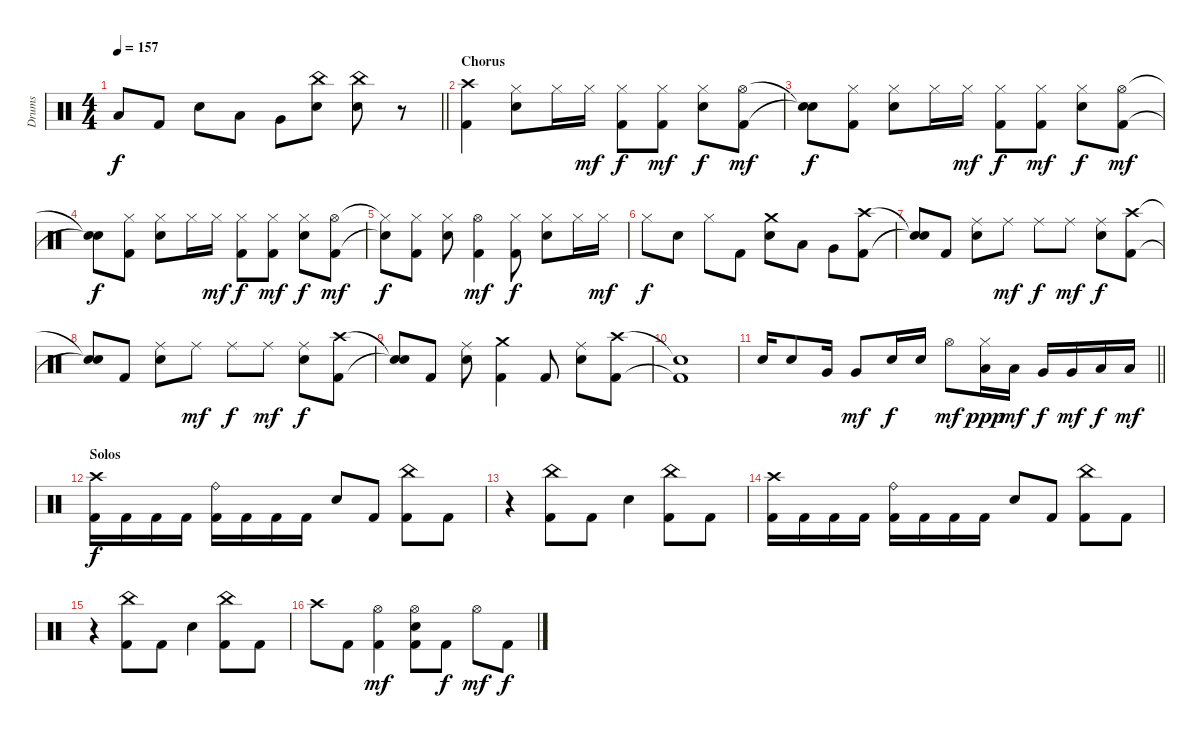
\track ("Drums" "Drums") {instrument percussion}
\staff {score}
\articulation defaults
\ts (4 4)
\tempo 157
\clef neutral
\barLineRight lightlight
\ks c "Low Tom (hit)".8{dy f} "Kick (hit) 2".8 "Electric Snare (hit)".8 "Low Tom (hit)".8 "Very Low Tom (hit)".8
("China (hit)" "Electric Snare (hit)").8 ("China (hit)" "Electric Snare (hit)").8 r.8 |
\section ("" "Chorus")
("Kick (hit) 2" "Crash high (hit)").4 ("Hi-Hat (closed)" "Electric Snare (hit)").8 "Hi-Hat (closed)".16 "Hi-Hat (closed)".16{dy mf} ("Kick (hit) 2" "Hi-Hat (closed)").8{dy f} ("Kick (hit) 2" "Hi-Hat (closed)").8{dy mf} ("Hi-Hat (closed)" "Electric Snare (hit)").8{dy f} ("Kick (hit) 2" "Hi-Hat (open)").8{dy mf} |
("Snare (hit)"{t} "Snare (hit)"{t}).8{dy f} ("Kick (hit) 2" "Hi-Hat (closed)").8 ("Hi-Hat (closed)" "Electric Snare (hit)").8 "Hi-Hat (closed)".16 "Hi-Hat (closed)".16{dy mf} ("Kick (hit) 2" "Hi-Hat (closed)").8{dy f} ("Kick (hit) 2" "Hi-Hat (closed)").8{dy mf} ("Hi-Hat (closed)" "Electric Snare (hit)").8{dy f} ("Kick (hit) 2" "Hi-Hat (open)").8{dy mf} |
("Snare (hit)"{t} "Snare (hit)"{t}).8{dy f} ("Kick (hit) 2" "Hi-Hat (closed)").8 ("Hi-Hat (closed)" "Electric Snare (hit)").8 "Hi-Hat (closed)".16 "Hi-Hat (closed)".16{dy mf} ("Kick (hit) 2" "Hi-Hat (closed)").8{dy f} ("Kick (hit) 2" "Hi-Hat (closed)").8{dy mf} ("Hi-Hat (closed)" "Electric Snare (hit)").8{dy f} ("Kick (hit) 2" "Hi-Hat (open)").8{dy mf} |
("Snare (hit)"{t} "Hi-Hat (closed)"{t}).8{dy f} ("Kick (hit) 2" "Hi-Hat (closed)").8 ("Hi-Hat (closed)" "Electric Snare (hit)").8 ("Kick (hit) 2" "Hi-Hat (open)").4{dy mf} ("Kick (hit) 2" "Hi-Hat (closed)").8{dy f} ("Hi-Hat (closed)" "Electric Snare (hit)").8 "Hi-Hat (closed)".16 "Hi-Hat (closed)".16{dy mf} |
"Hi-Hat (closed)".8{dy f} "Electric Snare (hit)".8 "Hi-Hat (closed)".8 "Kick (hit) 2".8 ("Crash medium (hit)" "Electric Snare (hit)").8 "Low Tom (hit)".8 "Very Low Tom (hit)".8 ("Kick (hit) 2" "Crash high (hit)").8 |
("Snare (hit)"{t} "Snare (hit)"{t}).8 "Kick (hit) 2".8 ("Ride (middle)" "Electric Snare (hit)").8 "Ride (middle)".8{dy mf} "Ride (middle)".8{dy f} "Ride (middle)".8{dy mf} ("Ride (middle)" "Electric Snare (hit)").8{dy f} ("Kick (hit) 2" "Crash high (hit)").8 |
("Snare (hit)"{t} "Snare (hit)"{t}).8 "Kick (hit) 2".8 ("Ride (middle)" "Electric Snare (hit)").8 "Ride (middle)".8{dy mf} "Ride (middle)".8{dy f} "Ride (middle)".8{dy mf} ("Ride (middle)" "Electric Snare (hit)").8{dy f} ("Kick (hit) 2" "Crash high (hit)").8 |
("Snare (hit)"{t} "Snare (hit)"{t}).8 "Kick (hit) 2".8 ("Ride (middle)" "Electric Snare (hit)").8 ("Kick (hit) 2" "Crash medium (hit)").4 "Kick (hit) 2".8 ("Ride (middle)" "Electric Snare (hit)").8 ("Kick (hit) 2" "Crash high (hit)").8 |
("Kick (hit) 2"{t} "Snare (hit)"{t}).1 |
\barLineRight lightlight "Electric Snare (hit)".16 "Electric Snare (hit)".8 "Very Low Tom (hit)".16 "Very Low Tom (hit)".8{dy mf} "Electric Snare (hit)".16{dy f} "Electric Snare (hit)".16 "Hi-Hat (open)".8{dy mf}
("Hi-Hat (closed)" "Low Tom (hit)").16{dy ppp} "Low Tom (hit)".16{dy mf} "Very Low Tom (hit)".16{dy f} "Very Low Tom (hit)".16{dy mf} "Low Floor Tom (hit)".16{dy f} "Low Floor Tom (hit)".16{dy mf} |
\section ("" "Solos")
("Kick (hit) 2" "Crash high (hit)").16{dy f} "Kick (hit) 2".16 "Kick (hit) 2".16 "Kick (hit) 2".16 ("Kick (hit) 2" "Ride (bell)").16 "Kick (hit) 2".16 "Kick (hit) 2".16 "Kick (hit) 2".16 "Electric Snare (hit)".8 "Kick (hit) 2".8 ("Kick (hit) 2" "China (hit)").8 "Kick (hit) 2".8 |
r.4 ("Kick (hit) 2" "China (hit)").8 "Kick (hit) 2".8 "Electric Snare (hit)".4 ("Kick (hit) 2" "China (hit)").8 "Kick (hit) 2".8 |
("Kick (hit) 2" "Crash high (hit)").16 "Kick (hit) 2".16 "Kick (hit) 2".16 "Kick (hit) 2".16 ("Kick (hit) 2" "Ride (bell)").16 "Kick (hit) 2".16 "Kick (hit) 2".16 "Kick (hit) 2".16 "Electric Snare (hit)".8 "Kick (hit) 2".8 ("Kick (hit) 2" "China (hit)").8 "Kick (hit) 2".8 |
r.4 ("Kick (hit) 2" "China (hit)").8 "Kick (hit) 2".8 "Electric Snare (hit)".4 ("Kick (hit) 2" "China (hit)").8 "Kick (hit) 2".8 |
"Crash high (hit)".8 "Kick (hit) 2".8 ("Kick (hit) 2" "Hi-Hat (open)").4{dy mf} ("Kick (hit) 2" "Hi-Hat (open)" "Electric Snare (hit)").8 "Kick (hit) 2".8{dy f} "Hi-Hat (open)".8{dy mf} "Kick (hit) 2".8{dy f}
